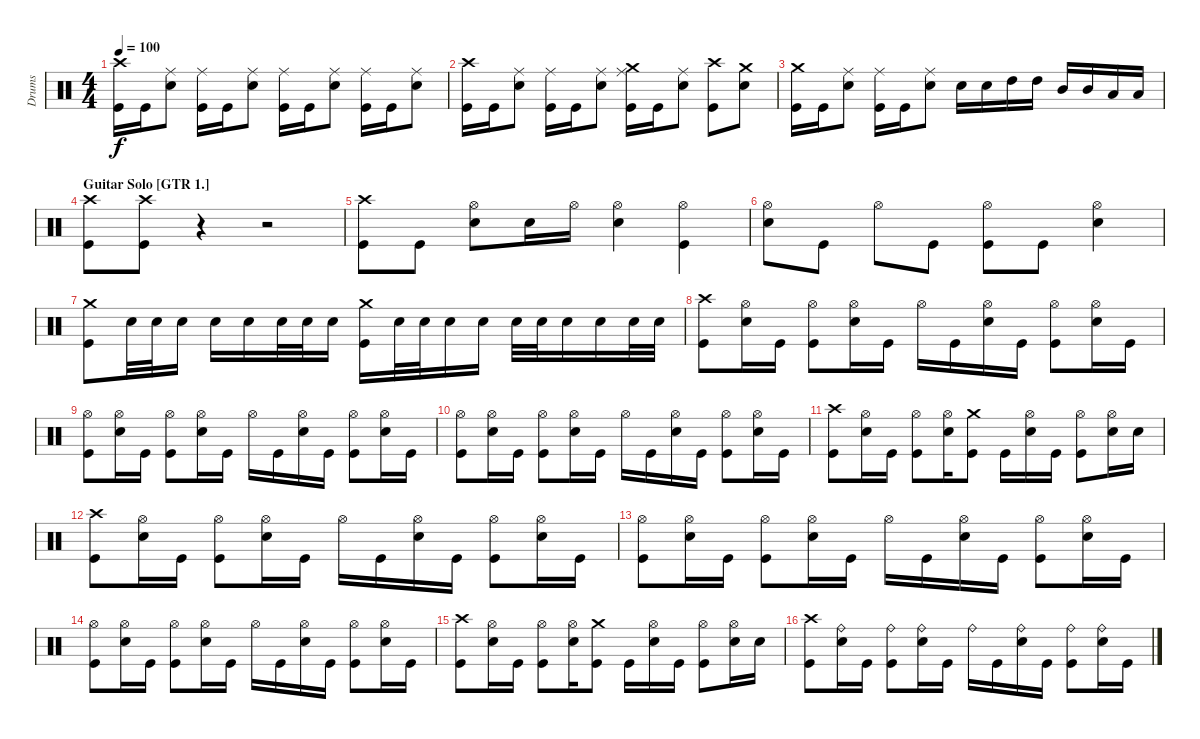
\track ("Drums" "Drums") {instrument percussion}
\staff {score}
\articulation defaults
\ts (4 4)
\tempo 100
\clef neutral
\ks c
("Crash high (hit)" "Kick (hit)").16{dy f} "Kick (hit)".16 ("Ride (middle)" "Electric Snare (hit)").8 ("Ride (middle)" "Kick (hit)").16 "Kick (hit)".16 ("Ride (middle)" "Electric Snare (hit)").8 ("Ride (middle)" "Kick (hit)").16 "Kick (hit)".16 ("Ride (middle)" "Electric Snare (hit)").8 ("Ride (middle)" "Kick (hit)").16 "Kick (hit)".16 ("Ride (middle)" "Electric Snare (hit)").8 |
("Crash high (hit)" "Kick (hit)").16 "Kick (hit)".16 ("Ride (middle)" "Electric Snare (hit)").8 ("Ride (middle)" "Kick (hit)").16 "Kick (hit)".16 ("Ride (middle)" "Electric Snare (hit)").8 ("Crash medium (hit)" "Ride (middle)" "Kick (hit)").16 "Kick (hit)".16 ("Ride (middle)" "Electric Snare (hit)").8 ("Crash high (hit)" "Kick (hit)").8 ("Crash medium (hit)" "Electric Snare (hit)").8 |
("Crash medium (hit)" "Kick (hit)").16 "Kick (hit)".16 ("Ride (middle)" "Electric Snare (hit)").8 ("Ride (middle)" "Kick (hit)").16 "Kick (hit)".16 ("Ride (middle)" "Electric Snare (hit)").8 "Electric Snare (hit)".16 "Electric Snare (hit)".16 "High Tom (hit)".16 "High Tom (hit)".16 "Mid Tom (hit)".16 "Mid Tom (hit)".16 "Low Tom (hit)".16 "Low Tom (hit)".16 |
\section ("" "Guitar Solo [GTR 1.]")
("Crash high (hit)" "Kick (hit)").8 ("Crash high (hit)" "Kick (hit)").8 r.4 r.2 |
("Crash high (hit)" "Kick (hit)").8 "Kick (hit)".8 ("Hi-Hat (open)" "Electric Snare (hit)").8 "Electric Snare (hit)".16 "Hi-Hat (open)".16 ("Hi-Hat (open)" "Electric Snare (hit)").4 ("Hi-Hat (open)" "Kick (hit)").4 |
("Hi-Hat (open)" "Electric Snare (hit)").8 "Kick (hit)".8 "Hi-Hat (open)".8 "Kick (hit)".8 ("Hi-Hat (open)" "Kick (hit)").8 "Kick (hit)".8 ("Hi-Hat (open)" "Electric Snare (hit)").4 |
("Crash medium (hit)" "Kick (hit)").8 "Electric Snare (hit)".32 "Electric Snare (hit)".32 "Electric Snare (hit)".16 "Electric Snare (hit)".16 "Electric Snare (hit)".16 "Electric Snare (hit)".32 "Electric Snare (hit)".32 "Electric Snare (hit)".16 ("Crash medium (hit)" "Kick (hit)").16 "Electric Snare (hit)".32 "Electric Snare (hit)".32 "Electric Snare (hit)".16 "Electric Snare (hit)".16 "Electric Snare (hit)".32 "Electric Snare (hit)".32 "Electric Snare (hit)".16 "Electric Snare (hit)".16 "Electric Snare (hit)".32 "Electric Snare (hit)".32 |
("Crash high (hit)" "Kick (hit)").8 ("Hi-Hat (open)" "Electric Snare (hit)").16 "Kick (hit)".16 ("Hi-Hat (open)" "Kick (hit)").8 ("Hi-Hat (open)" "Electric Snare (hit)").16 "Kick (hit)".16 "Hi-Hat (open)".16 "Kick (hit)".16 ("Hi-Hat (open)" "Electric Snare (hit)").16 "Kick (hit)".16 ("Hi-Hat (open)" "Kick (hit)").8 ("Hi-Hat (open)" "Electric Snare (hit)").16 "Kick (hit)".16 |
("Hi-Hat (open)" "Kick (hit)").8 ("Hi-Hat (open)" "Electric Snare (hit)").16 "Kick (hit)".16 ("Hi-Hat (open)" "Kick (hit)").8 ("Hi-Hat (open)" "Electric Snare (hit)").16 "Kick (hit)".16 "Hi-Hat (open)".16 "Kick (hit)".16 ("Hi-Hat (open)" "Electric Snare (hit)").16 "Kick (hit)".16 ("Hi-Hat (open)" "Kick (hit)").8 ("Hi-Hat (open)" "Electric Snare (hit)").16 "Kick (hit)".16 |
("Hi-Hat (open)" "Kick (hit)").8 ("Hi-Hat (open)" "Electric Snare (hit)").16 "Kick (hit)".16 ("Hi-Hat (open)" "Kick (hit)").8 ("Hi-Hat (open)" "Electric Snare (hit)").16 "Kick (hit)".16 "Hi-Hat (open)".16 "Kick (hit)".16 ("Hi-Hat (open)" "Electric Snare (hit)").16 "Kick (hit)".16 ("Hi-Hat (open)" "Kick (hit)").8 ("Hi-Hat (open)" "Electric Snare (hit)").16 "Kick (hit)".16 |
("Crash high (hit)" "Kick (hit)").8 ("Hi-Hat (open)" "Electric Snare (hit)").16 "Kick (hit)".16 ("Hi-Hat (open)" "Kick (hit)").8 ("Hi-Hat (open)" "Electric Snare (hit)").16 ("Crash medium (hit)" "Kick (hit)").8 "Kick (hit)".16 ("Hi-Hat (open)" "Electric Snare (hit)").16 "Kick (hit)".16 ("Hi-Hat (open)" "Kick (hit)").8 ("Hi-Hat (open)" "Electric Snare (hit)").16 "Electric Snare (hit)".16 |
("Crash high (hit)" "Kick (hit)").8 ("Hi-Hat (open)" "Electric Snare (hit)").16 "Kick (hit)".16 ("Hi-Hat (open)" "Kick (hit)").8 ("Hi-Hat (open)" "Electric Snare (hit)").16 "Kick (hit)".16 "Hi-Hat (open)".16 "Kick (hit)".16 ("Hi-Hat (open)" "Electric Snare (hit)").16 "Kick (hit)".16 ("Hi-Hat (open)" "Kick (hit)").8 ("Hi-Hat (open)" "Electric Snare (hit)").16 "Kick (hit)".16 |
("Hi-Hat (open)" "Kick (hit)").8 ("Hi-Hat (open)" "Electric Snare (hit)").16 "Kick (hit)".16 ("Hi-Hat (open)" "Kick (hit)").8 ("Hi-Hat (open)" "Electric Snare (hit)").16 "Kick (hit)".16 "Hi-Hat (open)".16 "Kick (hit)".16 ("Hi-Hat (open)" "Electric Snare (hit)").16 "Kick (hit)".16 ("Hi-Hat (open)" "Kick (hit)").8 ("Hi-Hat (open)" "Electric Snare (hit)").16 "Kick (hit)".16 |
("Hi-Hat (open)" "Kick (hit)").8 ("Hi-Hat (open)" "Electric Snare (hit)").16 "Kick (hit)".16 ("Hi-Hat (open)" "Kick (hit)").8 ("Hi-Hat (open)" "Electric Snare (hit)").16 "Kick (hit)".16 "Hi-Hat (open)".16 "Kick (hit)".16 ("Hi-Hat (open)" "Electric Snare (hit)").16 "Kick (hit)".16 ("Hi-Hat (open)" "Kick (hit)").8 ("Hi-Hat (open)" "Electric Snare (hit)").16 "Kick (hit)".16 |
("Crash high (hit)" "Kick (hit)").8 ("Hi-Hat (open)" "Electric Snare (hit)").16 "Kick (hit)".16 ("Hi-Hat (open)" "Kick (hit)").8 ("Hi-Hat (open)" "Electric Snare (hit)").16 ("Crash medium (hit)" "Kick (hit)").8 "Kick (hit)".16 ("Hi-Hat (open)" "Electric Snare (hit)").16 "Kick (hit)".16 ("Hi-Hat (open)" "Kick (hit)").8 ("Hi-Hat (open)" "Electric Snare (hit)").16 "Electric Snare (hit)".16 |
("Crash high (hit)" "Kick (hit)").8 ("Ride (bell)" "Electric Snare (hit)").16 "Kick (hit)".16 ("Ride (bell)" "Kick (hit)").8 ("Ride (bell)" "Electric Snare (hit)").16 "Kick (hit)".16 "Ride (bell)".16 "Kick (hit)".16 ("Ride (bell)" "Electric Snare (hit)").16 "Kick (hit)".16 ("Ride (bell)" "Kick (hit)").8 ("Ride (bell)" "Electric Snare (hit)").16 "Kick (hit)".16
